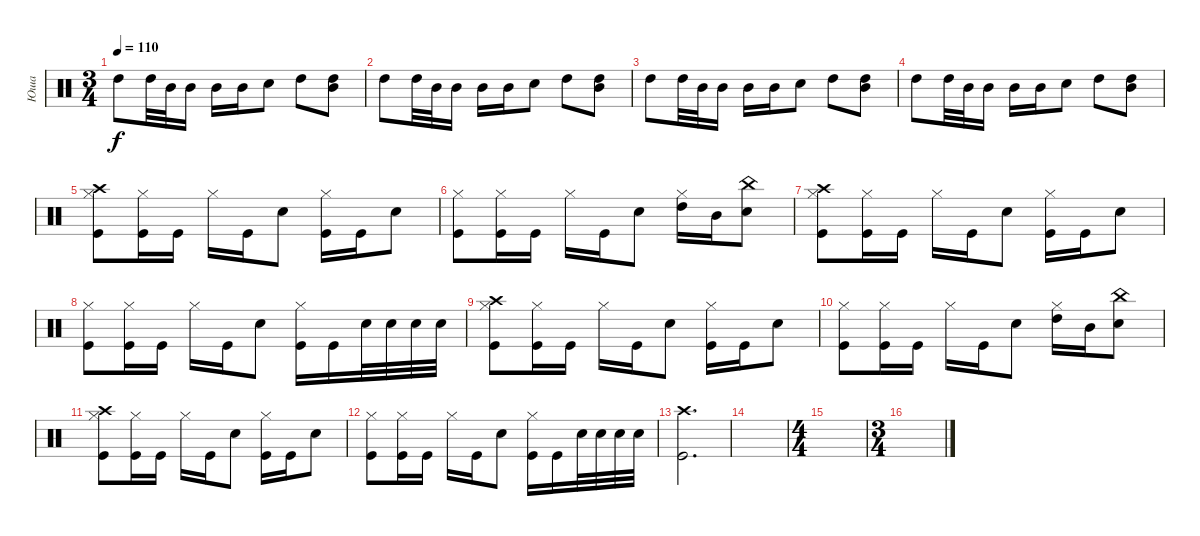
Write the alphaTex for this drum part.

\track ("Юша" "Юша") {instrument percussion}
\staff {score}
\articulation defaults
\ts (3 4)
\tempo 110
\clef neutral
\ks c "High Tom (hit)".8{dy f} "High Tom (hit)".32 "Mid Tom (hit)".32 "Mid Tom (hit)".16 "Mid Tom (hit)".16 "Mid Tom (hit)".16 "Snare (hit) 2".8 "High Tom (hit)".8
("High Tom (hit)" "Mid Tom (hit)").8 |
"High Tom (hit)".8 "High Tom (hit)".32 "Mid Tom (hit)".32 "Mid Tom (hit)".16 "Mid Tom (hit)".16 "Mid Tom (hit)".16 "Snare (hit) 2".8 "High Tom (hit)".8 ("High Tom (hit)" "Mid Tom (hit)").8 |
"High Tom (hit)".8 "High Tom (hit)".32 "Mid Tom (hit)".32 "Mid Tom (hit)".16 "Mid Tom (hit)".16 "Mid Tom (hit)".16 "Snare (hit) 2".8 "High Tom (hit)".8 ("High Tom (hit)" "Mid Tom (hit)").8 |
"High Tom (hit)".8 "High Tom (hit)".32 "Mid Tom (hit)".32 "Mid Tom (hit)".16 "Mid Tom (hit)".16 "Mid Tom (hit)".16 "Snare (hit) 2".8 "High Tom (hit)".8 ("High Tom (hit)" "Mid Tom (hit)").8 |
("Hi-Hat (closed)" "Kick (hit)" "Crash high (hit)").8 ("Kick (hit)" "Hi-Hat (closed)").16 "Kick (hit)".16 "Hi-Hat (closed)".16 "Kick (hit)".16 "Snare (hit) 2".8 ("Kick (hit)" "Hi-Hat (closed)").16 "Kick (hit)".16 "Snare (hit) 2".8 |
("Hi-Hat (closed)" "Kick (hit)").8 ("Kick (hit)" "Hi-Hat (closed)").16 "Kick (hit)".16 "Hi-Hat (closed)".16 "Kick (hit)".16 "Snare (hit) 2".8 ("Hi-Hat (closed)" "High Tom (hit)").16 "Mid Tom (hit)".16 ("Snare (hit) 2" "China (hit)").8 |
("Hi-Hat (closed)" "Kick (hit)" "Crash high (hit)").8 ("Kick (hit)" "Hi-Hat (closed)").16 "Kick (hit)".16 "Hi-Hat (closed)".16 "Kick (hit)".16 "Snare (hit) 2".8 ("Kick (hit)" "Hi-Hat (closed)").16 "Kick (hit)".16 "Snare (hit) 2".8 |
("Hi-Hat (closed)" "Kick (hit)").8 ("Kick (hit)" "Hi-Hat (closed)").16 "Kick (hit)".16 "Hi-Hat (closed)".16 "Kick (hit)".16 "Snare (hit) 2".8 ("Kick (hit)" "Hi-Hat (closed)").16 "Kick (hit)".16 "Snare (hit) 2".32 "Snare (hit) 2".32 "Snare (hit) 2".32 "Snare (hit) 2".32 |
("Hi-Hat (closed)" "Kick (hit)" "Crash high (hit)").8 ("Kick (hit)" "Hi-Hat (closed)").16 "Kick (hit)".16 "Hi-Hat (closed)".16 "Kick (hit)".16 "Snare (hit) 2".8 ("Kick (hit)" "Hi-Hat (closed)").16 "Kick (hit)".16 "Snare (hit) 2".8 |
("Hi-Hat (closed)" "Kick (hit)").8 ("Kick (hit)" "Hi-Hat (closed)").16 "Kick (hit)".16 "Hi-Hat (closed)".16 "Kick (hit)".16 "Snare (hit) 2".8 ("Hi-Hat (closed)" "High Tom (hit)").16 "Mid Tom (hit)".16 ("Snare (hit) 2" "China (hit)").8 |
("Hi-Hat (closed)" "Kick (hit)" "Crash high (hit)").8 ("Kick (hit)" "Hi-Hat (closed)").16 "Kick (hit)".16 "Hi-Hat (closed)".16 "Kick (hit)".16 "Snare (hit) 2".8 ("Kick (hit)" "Hi-Hat (closed)").16 "Kick (hit)".16 "Snare (hit) 2".8 |
("Hi-Hat (closed)" "Kick (hit)").8 ("Kick (hit)" "Hi-Hat (closed)").16 "Kick (hit)".16 "Hi-Hat (closed)".16 "Kick (hit)".16 "Snare (hit) 2".8 ("Kick (hit)" "Hi-Hat (closed)").16 "Kick (hit)".16 "Snare (hit) 2".32 "Snare (hit) 2".32 "Snare (hit) 2".32 "Snare (hit) 2".32 |
("Kick (hit)" "Crash high (hit)").2{d} |
|
\ts (4 4)
|
\ts (3 4)
